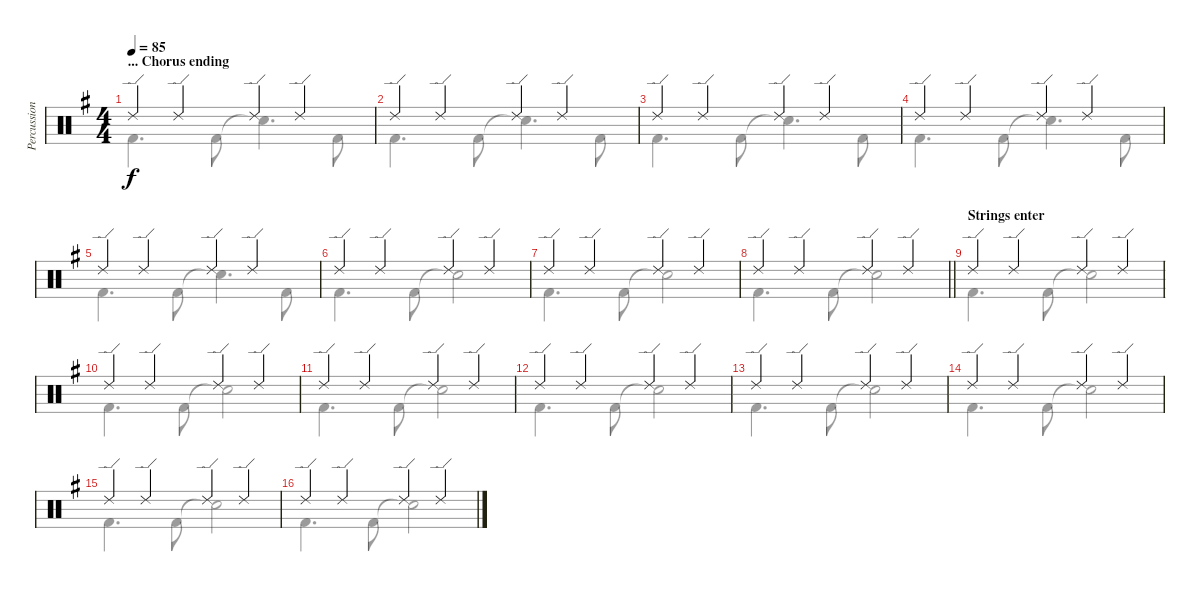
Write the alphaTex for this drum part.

\track ("Percussion" "Percussion") {instrument percussion}
\staff {score}
\articulation defaults
\voice
\ts (4 4)
\section ("" "... Chorus ending")
\tempo 85
\clef neutral
\ks g "Ride (edge) 2".4{dy f} "Ride (edge) 2".4 "Ride (edge) 2".4 "Ride (edge) 2".4
|
"Ride (edge) 2".4 "Ride (edge) 2".4 "Ride (edge) 2".4 "Ride (edge) 2".4 |
"Ride (edge) 2".4 "Ride (edge) 2".4 "Ride (edge) 2".4 "Ride (edge) 2".4 |
"Ride (edge) 2".4 "Ride (edge) 2".4 "Ride (edge) 2".4 "Ride (edge) 2".4 |
"Ride (edge) 2".4 "Ride (edge) 2".4 "Ride (edge) 2".4 "Ride (edge) 2".4 |
"Ride (edge) 2".4 "Ride (edge) 2".4 "Ride (edge) 2".4 "Ride (edge) 2".4 |
"Ride (edge) 2".4 "Ride (edge) 2".4 "Ride (edge) 2".4 "Ride (edge) 2".4 |
\barLineRight lightlight "Ride (edge) 2".4 "Ride (edge) 2".4 "Ride (edge) 2".4 "Ride (edge) 2".4
|
\section ("" "Strings enter")
"Ride (edge) 2".4 "Ride (edge) 2".4 "Ride (edge) 2".4 "Ride (edge) 2".4 |
"Ride (edge) 2".4 "Ride (edge) 2".4 "Ride (edge) 2".4 "Ride (edge) 2".4 |
"Ride (edge) 2".4 "Ride (edge) 2".4 "Ride (edge) 2".4 "Ride (edge) 2".4 |
"Ride (edge) 2".4 "Ride (edge) 2".4 "Ride (edge) 2".4 "Ride (edge) 2".4 |
"Ride (edge) 2".4 "Ride (edge) 2".4 "Ride (edge) 2".4 "Ride (edge) 2".4 |
"Ride (edge) 2".4 "Ride (edge) 2".4 "Ride (edge) 2".4 "Ride (edge) 2".4 |
"Ride (edge) 2".4 "Ride (edge) 2".4 "Ride (edge) 2".4 "Ride (edge) 2".4 |
"Ride (edge) 2".4 "Ride (edge) 2".4 "Ride (edge) 2".4 "Ride (edge) 2".4
\voice
\clef neutral
\ottava regular
\simile none
\ks g "Kick (hit) 2".4{d dy f} "Kick (hit) 2".8 "Snare (hit)"{t}.4{d} "Kick (hit) 2".8
|
"Kick (hit) 2".4{d} "Kick (hit) 2".8 "Snare (hit)"{t}.4{d} "Kick (hit) 2".8 |
"Kick (hit) 2".4{d} "Kick (hit) 2".8 "Snare (hit)"{t}.4{d} "Kick (hit) 2".8 |
"Kick (hit) 2".4{d} "Kick (hit) 2".8 "Snare (hit)"{t}.4{d} "Kick (hit) 2".8 |
"Kick (hit) 2".4{d} "Kick (hit) 2".8 "Snare (hit)"{t}.4{d} "Kick (hit) 2".8 |
"Kick (hit) 2".4{d} "Kick (hit) 2".8 "Snare (hit)"{t}.2 |
"Kick (hit) 2".4{d} "Kick (hit) 2".8 "Snare (hit)"{t}.2 |
\barLineRight lightlight "Kick (hit) 2".4{d} "Kick (hit) 2".8 "Snare (hit)"{t}.2
|
"Kick (hit) 2".4{d} "Kick (hit) 2".8 "Snare (hit)"{t}.2 |
"Kick (hit) 2".4{d} "Kick (hit) 2".8 "Snare (hit)"{t}.2 |
"Kick (hit) 2".4{d} "Kick (hit) 2".8 "Snare (hit)"{t}.2 |
"Kick (hit) 2".4{d} "Kick (hit) 2".8 "Snare (hit)"{t}.2 |
"Kick (hit) 2".4{d} "Kick (hit) 2".8 "Snare (hit)"{t}.2 |
"Kick (hit) 2".4{d} "Kick (hit) 2".8 "Snare (hit)"{t}.2 |
"Kick (hit) 2".4{d} "Kick (hit) 2".8 "Snare (hit)"{t}.2 |
"Kick (hit) 2".4{d} "Kick (hit) 2".8 "Snare (hit)"{t}.2
